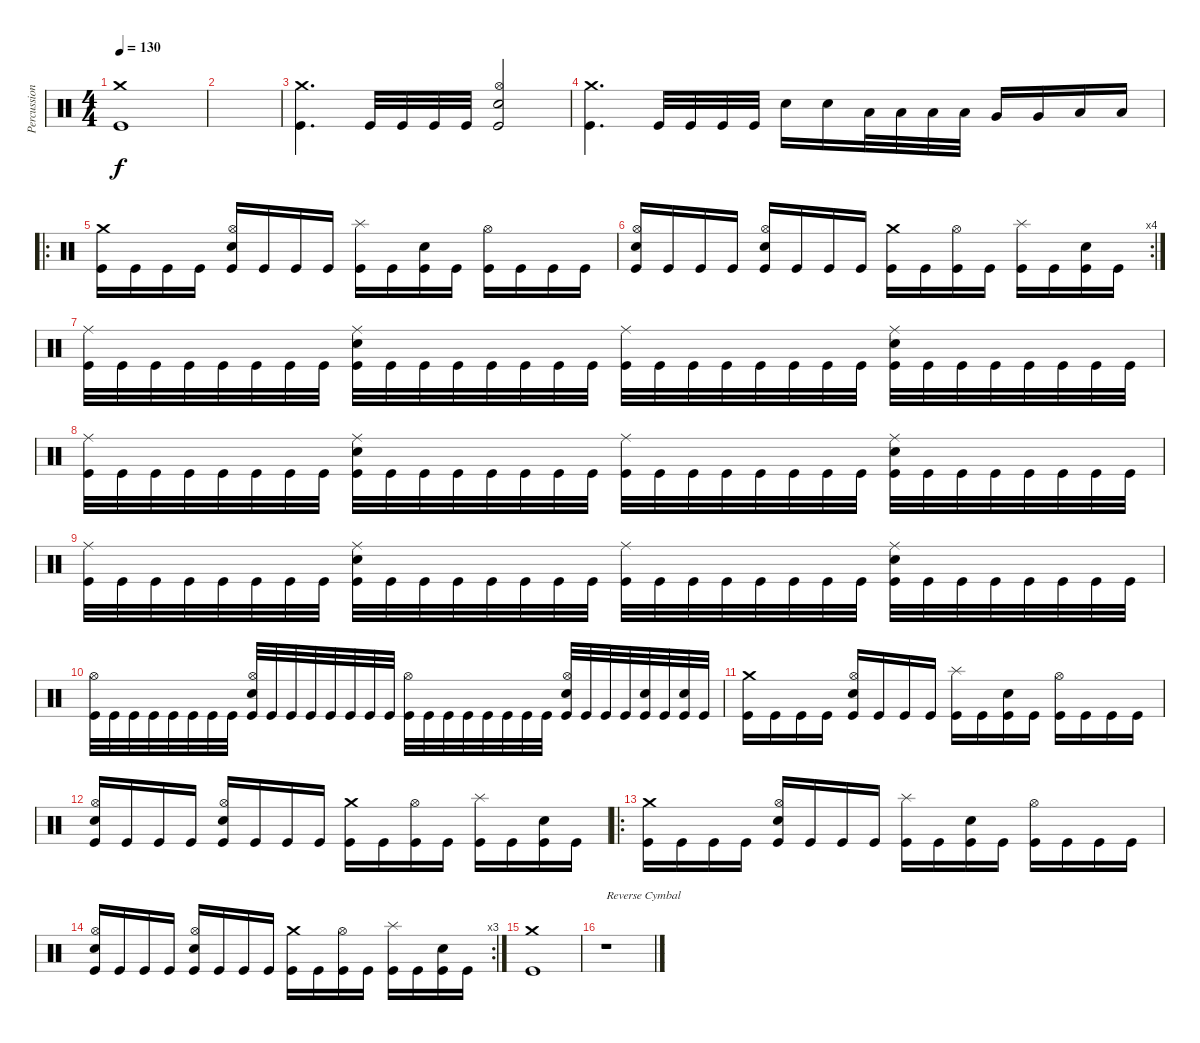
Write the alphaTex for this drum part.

\track ("Percussion" "Percussion") {instrument percussion}
\staff {score}
\articulation defaults
\ts (4 4)
\tempo 130
\clef neutral
\ks c
("Kick (hit)" "Crash medium (hit)").1{dy f} |
|
("Kick (hit)" "Crash medium (hit)").4{d} "Kick (hit)".32 "Kick (hit)".32 "Kick (hit)".32 "Kick (hit)".32 ("Kick (hit)" "Hi-Hat (open)" "Electric Snare (hit)").2 |
("Kick (hit)" "Crash medium (hit)").4{d} "Kick (hit)".32 "Kick (hit)".32 "Kick (hit)".32 "Kick (hit)".32 "Electric Snare (hit)".16 "Electric Snare (hit)".16 "Low Tom (hit)".32 "Low Tom (hit)".32 "Low Tom (hit)".32 "Low Tom (hit)".32 "Very Low Tom (hit)".16 "Very Low Tom (hit)".16 "Low Floor Tom (hit)".16 "Low Floor Tom (hit)".16 |
\ro
("Kick (hit)" "Crash medium (hit)").16 "Kick (hit)".16 "Kick (hit)".16 "Kick (hit)".16 ("Kick (hit)" "Electric Snare (hit)" "Hi-Hat (open)").16 "Kick (hit)".16 "Kick (hit)".16 "Kick (hit)".16 ("Kick (hit)" "Splash (hit)").16 "Kick (hit)".16 ("Kick (hit)" "Electric Snare (hit)").16 "Kick (hit)".16 ("Kick (hit)" "Hi-Hat (open)").16 "Kick (hit)".16 "Kick (hit)".16 "Kick (hit)".16 |
\rc 4
("Kick (hit)" "Electric Snare (hit)" "Hi-Hat (open)").16 "Kick (hit)".16 "Kick (hit)".16 "Kick (hit)".16 ("Kick (hit)" "Electric Snare (hit)" "Hi-Hat (open)").16 "Kick (hit)".16 "Kick (hit)".16 "Kick (hit)".16 ("Kick (hit)" "Crash medium (hit)").16 "Kick (hit)".16 ("Kick (hit)" "Hi-Hat (open)").16 "Kick (hit)".16 ("Kick (hit)" "Splash (hit)").16 "Kick (hit)".16 ("Kick (hit)" "Electric Snare (hit)").16 "Kick (hit)".16 |
("Kick (hit)" "Ride (middle)").32 "Kick (hit)".32 "Kick (hit)".32 "Kick (hit)".32 "Kick (hit)".32 "Kick (hit)".32 "Kick (hit)".32 "Kick (hit)".32 ("Kick (hit)" "Ride (middle)" "Electric Snare (hit)").32 "Kick (hit)".32 "Kick (hit)".32 "Kick (hit)".32 "Kick (hit)".32 "Kick (hit)".32 "Kick (hit)".32 "Kick (hit)".32 ("Kick (hit)" "Ride (middle)").32 "Kick (hit)".32 "Kick (hit)".32 "Kick (hit)".32 "Kick (hit)".32 "Kick (hit)".32 "Kick (hit)".32 "Kick (hit)".32 ("Kick (hit)" "Ride (middle)" "Electric Snare (hit)").32 "Kick (hit)".32 "Kick (hit)".32 "Kick (hit)".32 "Kick (hit)".32 "Kick (hit)".32 "Kick (hit)".32 "Kick (hit)".32 |
("Kick (hit)" "Ride (middle)").32 "Kick (hit)".32 "Kick (hit)".32 "Kick (hit)".32 "Kick (hit)".32 "Kick (hit)".32 "Kick (hit)".32 "Kick (hit)".32 ("Kick (hit)" "Ride (middle)" "Electric Snare (hit)").32 "Kick (hit)".32 "Kick (hit)".32 "Kick (hit)".32 "Kick (hit)".32 "Kick (hit)".32 "Kick (hit)".32 "Kick (hit)".32 ("Kick (hit)" "Ride (middle)").32 "Kick (hit)".32 "Kick (hit)".32 "Kick (hit)".32 "Kick (hit)".32 "Kick (hit)".32 "Kick (hit)".32 "Kick (hit)".32 ("Kick (hit)" "Ride (middle)" "Electric Snare (hit)").32 "Kick (hit)".32 "Kick (hit)".32 "Kick (hit)".32 "Kick (hit)".32 "Kick (hit)".32 "Kick (hit)".32 "Kick (hit)".32 |
("Kick (hit)" "Ride (middle)").32 "Kick (hit)".32 "Kick (hit)".32 "Kick (hit)".32 "Kick (hit)".32 "Kick (hit)".32 "Kick (hit)".32 "Kick (hit)".32 ("Kick (hit)" "Ride (middle)" "Electric Snare (hit)").32 "Kick (hit)".32 "Kick (hit)".32 "Kick (hit)".32 "Kick (hit)".32 "Kick (hit)".32 "Kick (hit)".32 "Kick (hit)".32 ("Kick (hit)" "Ride (middle)").32 "Kick (hit)".32 "Kick (hit)".32 "Kick (hit)".32 "Kick (hit)".32 "Kick (hit)".32 "Kick (hit)".32 "Kick (hit)".32 ("Kick (hit)" "Ride (middle)" "Electric Snare (hit)").32 "Kick (hit)".32 "Kick (hit)".32 "Kick (hit)".32 "Kick (hit)".32 "Kick (hit)".32 "Kick (hit)".32 "Kick (hit)".32 |
("Kick (hit)" "Hi-Hat (open)").32 "Kick (hit)".32 "Kick (hit)".32 "Kick (hit)".32 "Kick (hit)".32 "Kick (hit)".32 "Kick (hit)".32 "Kick (hit)".32 ("Kick (hit)" "Hi-Hat (open)" "Electric Snare (hit)").32 "Kick (hit)".32 "Kick (hit)".32 "Kick (hit)".32 "Kick (hit)".32 "Kick (hit)".32 "Kick (hit)".32 "Kick (hit)".32 ("Kick (hit)" "Hi-Hat (open)").32 "Kick (hit)".32 "Kick (hit)".32 "Kick (hit)".32 "Kick (hit)".32 "Kick (hit)".32 "Kick (hit)".32 "Kick (hit)".32 ("Kick (hit)" "Hi-Hat (open)" "Electric Snare (hit)").32 "Kick (hit)".32 "Kick (hit)".32 "Kick (hit)".32 ("Kick (hit)" "Electric Snare (hit)").32 "Kick (hit)".32 ("Kick (hit)" "Electric Snare (hit)").32 "Kick (hit)".32 |
("Kick (hit)" "Crash medium (hit)").16 "Kick (hit)".16 "Kick (hit)".16 "Kick (hit)".16 ("Kick (hit)" "Electric Snare (hit)" "Hi-Hat (open)").16 "Kick (hit)".16 "Kick (hit)".16 "Kick (hit)".16 ("Kick (hit)" "Splash (hit)").16 "Kick (hit)".16 ("Kick (hit)" "Electric Snare (hit)").16 "Kick (hit)".16 ("Kick (hit)" "Hi-Hat (open)").16 "Kick (hit)".16 "Kick (hit)".16 "Kick (hit)".16 |
("Kick (hit)" "Electric Snare (hit)" "Hi-Hat (open)").16 "Kick (hit)".16 "Kick (hit)".16 "Kick (hit)".16 ("Kick (hit)" "Electric Snare (hit)" "Hi-Hat (open)").16 "Kick (hit)".16 "Kick (hit)".16 "Kick (hit)".16 ("Kick (hit)" "Crash medium (hit)").16 "Kick (hit)".16 ("Kick (hit)" "Hi-Hat (open)").16 "Kick (hit)".16 ("Kick (hit)" "Splash (hit)").16 "Kick (hit)".16 ("Kick (hit)" "Electric Snare (hit)").16 "Kick (hit)".16 |
\ro
("Kick (hit)" "Crash medium (hit)").16 "Kick (hit)".16 "Kick (hit)".16 "Kick (hit)".16 ("Kick (hit)" "Electric Snare (hit)" "Hi-Hat (open)").16 "Kick (hit)".16 "Kick (hit)".16 "Kick (hit)".16 ("Kick (hit)" "Splash (hit)").16 "Kick (hit)".16 ("Kick (hit)" "Electric Snare (hit)").16 "Kick (hit)".16 ("Kick (hit)" "Hi-Hat (open)").16 "Kick (hit)".16 "Kick (hit)".16 "Kick (hit)".16 |
\rc 3
("Kick (hit)" "Electric Snare (hit)" "Hi-Hat (open)").16 "Kick (hit)".16 "Kick (hit)".16 "Kick (hit)".16 ("Kick (hit)" "Electric Snare (hit)" "Hi-Hat (open)").16 "Kick (hit)".16 "Kick (hit)".16 "Kick (hit)".16 ("Kick (hit)" "Crash medium (hit)").16 "Kick (hit)".16 ("Kick (hit)" "Hi-Hat (open)").16 "Kick (hit)".16 ("Kick (hit)" "Splash (hit)").16 "Kick (hit)".16 ("Kick (hit)" "Electric Snare (hit)").16 "Kick (hit)".16 |
("Kick (hit)" "Crash medium (hit)").1 |
r.1{txt "Reverse Cymbal"}
